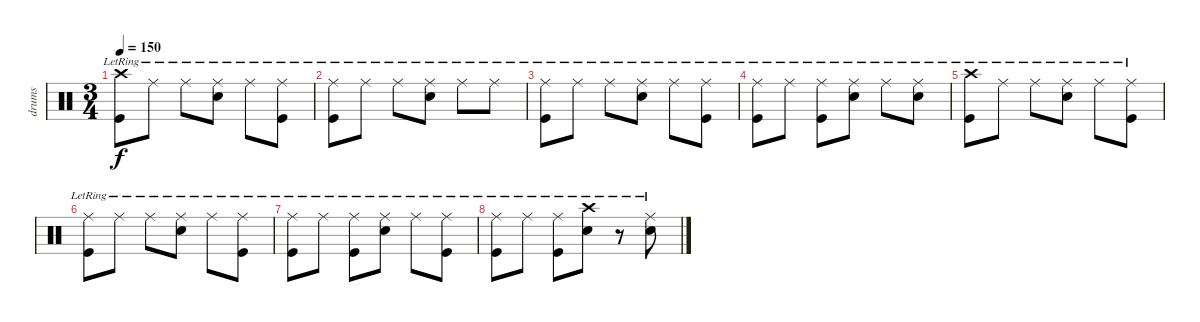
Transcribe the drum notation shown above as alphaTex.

\track ("drums" "drums") {instrument percussion}
\staff {score}
\articulation defaults
\ts (3 4)
\tempo 150
\clef neutral
\ks c
("Crash high (hit)"{lr} "Kick (hit)").8{dy f} "Ride (middle)"{lr}.8 "Ride (middle)"{lr}.8 ("Ride (middle)"{lr} "Snare (hit) 2").8 "Ride (middle)"{lr}.8 ("Ride (middle)"{lr} "Kick (hit)").8 |
("Ride (middle)"{lr} "Kick (hit)").8 "Ride (middle)"{lr}.8 "Ride (middle)"{lr}.8 ("Ride (middle)"{lr} "Snare (hit) 2").8 "Ride (middle)"{lr}.8 "Ride (middle)"{lr}.8 |
("Ride (middle)"{lr} "Kick (hit)").8 "Ride (middle)"{lr}.8 "Ride (middle)"{lr}.8 ("Ride (middle)"{lr} "Snare (hit) 2").8 "Ride (middle)"{lr}.8 ("Ride (middle)"{lr} "Kick (hit)").8 |
("Ride (middle)"{lr} "Kick (hit)").8 "Ride (middle)"{lr}.8 ("Ride (middle)"{lr} "Kick (hit)").8 ("Ride (middle)"{lr} "Snare (hit) 2").8 "Ride (middle)"{lr}.8 ("Ride (middle)"{lr} "Snare (hit) 2").8 |
("Crash high (hit)"{lr} "Kick (hit)").8 "Ride (middle)"{lr}.8 "Ride (middle)"{lr}.8 ("Ride (middle)"{lr} "Snare (hit) 2").8 "Ride (middle)"{lr}.8 ("Ride (middle)"{lr} "Kick (hit)").8 |
("Ride (middle)"{lr} "Kick (hit)").8 "Ride (middle)"{lr}.8 "Ride (middle)"{lr}.8 ("Ride (middle)"{lr} "Snare (hit) 2").8 "Ride (middle)"{lr}.8 ("Ride (middle)"{lr} "Kick (hit)").8 |
("Ride (middle)"{lr} "Kick (hit)").8 "Ride (middle)"{lr}.8 ("Ride (middle)"{lr} "Kick (hit)").8 ("Ride (middle)"{lr} "Snare (hit) 2").8 "Ride (middle)"{lr}.8 ("Ride (middle)"{lr} "Kick (hit)").8 |
("Ride (middle)"{lr} "Kick (hit)").8 "Ride (middle)"{lr}.8 ("Ride (middle)"{lr} "Kick (hit)").8 ("Crash high (hit)"{lr} "Snare (hit) 2").8 r.8 ("Ride (middle)"{lr} "Snare (hit) 2").8
